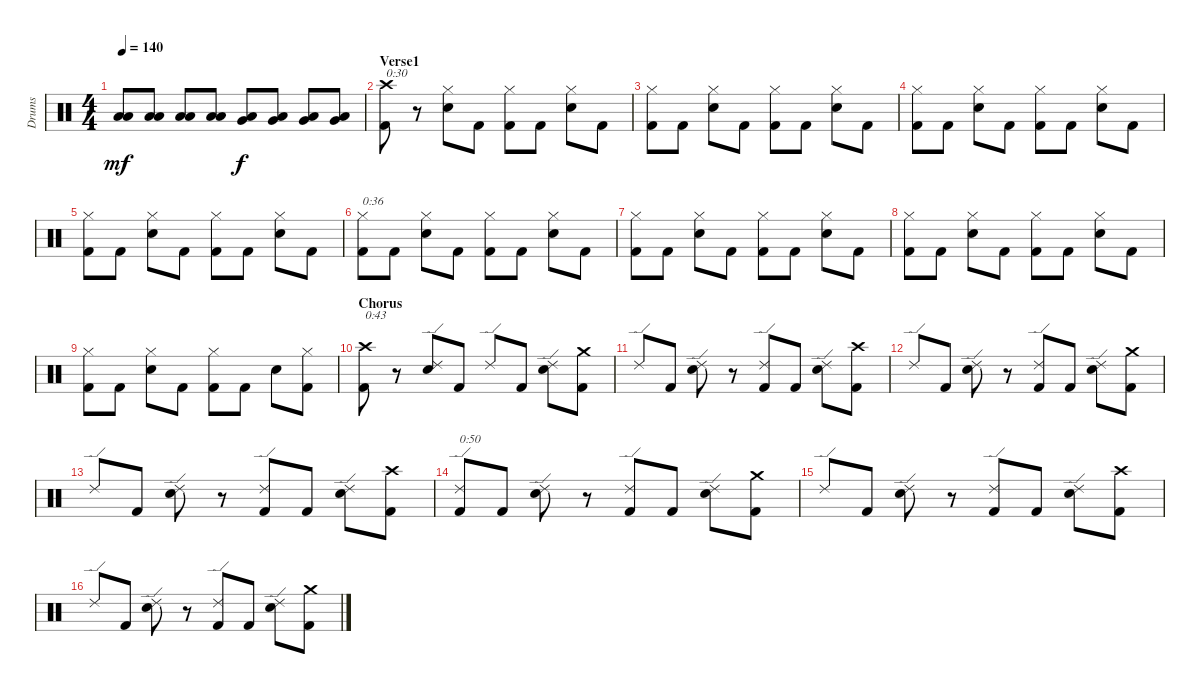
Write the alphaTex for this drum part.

\track ("Drums" "Drums") {instrument percussion}
\staff {score}
\articulation defaults
\ts (4 4)
\tempo 140
\clef neutral
\ks c
("Low Floor Tom (hit)" "Low Tom (hit)").8{dy mf} ("Low Floor Tom (hit)" "Low Tom (hit)").8 ("Low Floor Tom (hit)" "Low Tom (hit)").8 ("Low Floor Tom (hit)" "Low Tom (hit)").8 ("Low Floor Tom (hit)" "Very Low Tom (hit)").8{dy f} ("Low Floor Tom (hit)" "Very Low Tom (hit)").8 ("Low Floor Tom (hit)" "Very Low Tom (hit)").8 ("Low Floor Tom (hit)" "Very Low Tom (hit)").8 |
\section ("" "Verse1")
("Crash high (hit)" "Kick (hit) 2").8{txt "0:30"} r.8 ("Hi-Hat (closed)" "Electric Snare (hit)").8 "Kick (hit) 2".8 ("Hi-Hat (closed)" "Kick (hit) 2").8 "Kick (hit) 2".8 ("Hi-Hat (closed)" "Electric Snare (hit)").8 "Kick (hit) 2".8 |
("Hi-Hat (closed)" "Kick (hit) 2").8 "Kick (hit) 2".8 ("Hi-Hat (closed)" "Electric Snare (hit)").8 "Kick (hit) 2".8 ("Hi-Hat (closed)" "Kick (hit) 2").8 "Kick (hit) 2".8 ("Hi-Hat (closed)" "Electric Snare (hit)").8 "Kick (hit) 2".8 |
("Hi-Hat (closed)" "Kick (hit) 2").8 "Kick (hit) 2".8 ("Hi-Hat (closed)" "Electric Snare (hit)").8 "Kick (hit) 2".8 ("Hi-Hat (closed)" "Kick (hit) 2").8 "Kick (hit) 2".8 ("Hi-Hat (closed)" "Electric Snare (hit)").8 "Kick (hit) 2".8 |
("Hi-Hat (closed)" "Kick (hit) 2").8 "Kick (hit) 2".8 ("Hi-Hat (closed)" "Electric Snare (hit)").8 "Kick (hit) 2".8 ("Hi-Hat (closed)" "Kick (hit) 2").8 "Kick (hit) 2".8 ("Hi-Hat (closed)" "Electric Snare (hit)").8 "Kick (hit) 2".8 |
("Hi-Hat (closed)" "Kick (hit) 2").8{txt "0:36"} "Kick (hit) 2".8 ("Hi-Hat (closed)" "Electric Snare (hit)").8 "Kick (hit) 2".8 ("Hi-Hat (closed)" "Kick (hit) 2").8 "Kick (hit) 2".8 ("Hi-Hat (closed)" "Electric Snare (hit)").8 "Kick (hit) 2".8 |
("Hi-Hat (closed)" "Kick (hit) 2").8 "Kick (hit) 2".8 ("Hi-Hat (closed)" "Electric Snare (hit)").8 "Kick (hit) 2".8 ("Hi-Hat (closed)" "Kick (hit) 2").8 "Kick (hit) 2".8 ("Hi-Hat (closed)" "Electric Snare (hit)").8 "Kick (hit) 2".8 |
("Hi-Hat (closed)" "Kick (hit) 2").8 "Kick (hit) 2".8 ("Hi-Hat (closed)" "Electric Snare (hit)").8 "Kick (hit) 2".8 ("Hi-Hat (closed)" "Kick (hit) 2").8 "Kick (hit) 2".8 ("Hi-Hat (closed)" "Electric Snare (hit)").8 "Kick (hit) 2".8 |
("Hi-Hat (closed)" "Kick (hit) 2").8 "Kick (hit) 2".8 ("Hi-Hat (closed)" "Electric Snare (hit)").8 "Kick (hit) 2".8 ("Hi-Hat (closed)" "Kick (hit) 2").8 "Kick (hit) 2".8 "Electric Snare (hit)".8 ("Hi-Hat (closed)" "Kick (hit) 2").8 |
\section ("" "Chorus")
("Crash high (hit)" "Kick (hit) 2").8{txt "0:43"} r.8 ("Ride (edge) 2" "Electric Snare (hit)").8 "Kick (hit) 2".8 "Ride (edge) 2".8 "Kick (hit) 2".8 ("Ride (edge) 2" "Electric Snare (hit)").8 ("Crash medium (hit)" "Kick (hit) 2").8 |
"Ride (edge) 2".8 "Kick (hit) 2".8 ("Ride (edge) 2" "Electric Snare (hit)").8 r.8 ("Ride (edge) 2" "Kick (hit) 2").8 "Kick (hit) 2".8 ("Ride (edge) 2" "Electric Snare (hit)").8 ("Crash high (hit)" "Kick (hit) 2").8 |
"Ride (edge) 2".8 "Kick (hit) 2".8 ("Ride (edge) 2" "Electric Snare (hit)").8 r.8 ("Ride (edge) 2" "Kick (hit) 2").8 "Kick (hit) 2".8 ("Ride (edge) 2" "Electric Snare (hit)").8 ("Crash medium (hit)" "Kick (hit) 2").8 |
"Ride (edge) 2".8 "Kick (hit) 2".8 ("Ride (edge) 2" "Electric Snare (hit)").8 r.8 ("Ride (edge) 2" "Kick (hit) 2").8 "Kick (hit) 2".8 ("Ride (edge) 2" "Electric Snare (hit)").8 ("Crash high (hit)" "Kick (hit) 2").8 |
("Ride (edge) 2" "Kick (hit) 2").8{txt "0:50"} "Kick (hit) 2".8 ("Ride (edge) 2" "Electric Snare (hit)").8 r.8 ("Ride (edge) 2" "Kick (hit) 2").8 "Kick (hit) 2".8 ("Ride (edge) 2" "Electric Snare (hit)").8 ("Crash medium (hit)" "Kick (hit) 2").8 |
"Ride (edge) 2".8 "Kick (hit) 2".8 ("Ride (edge) 2" "Electric Snare (hit)").8 r.8 ("Ride (edge) 2" "Kick (hit) 2").8 "Kick (hit) 2".8 ("Ride (edge) 2" "Electric Snare (hit)").8 ("Crash high (hit)" "Kick (hit) 2").8 |
"Ride (edge) 2".8 "Kick (hit) 2".8 ("Ride (edge) 2" "Electric Snare (hit)").8 r.8 ("Ride (edge) 2" "Kick (hit) 2").8 "Kick (hit) 2".8 ("Ride (edge) 2" "Electric Snare (hit)").8 ("Crash medium (hit)" "Kick (hit) 2").8
